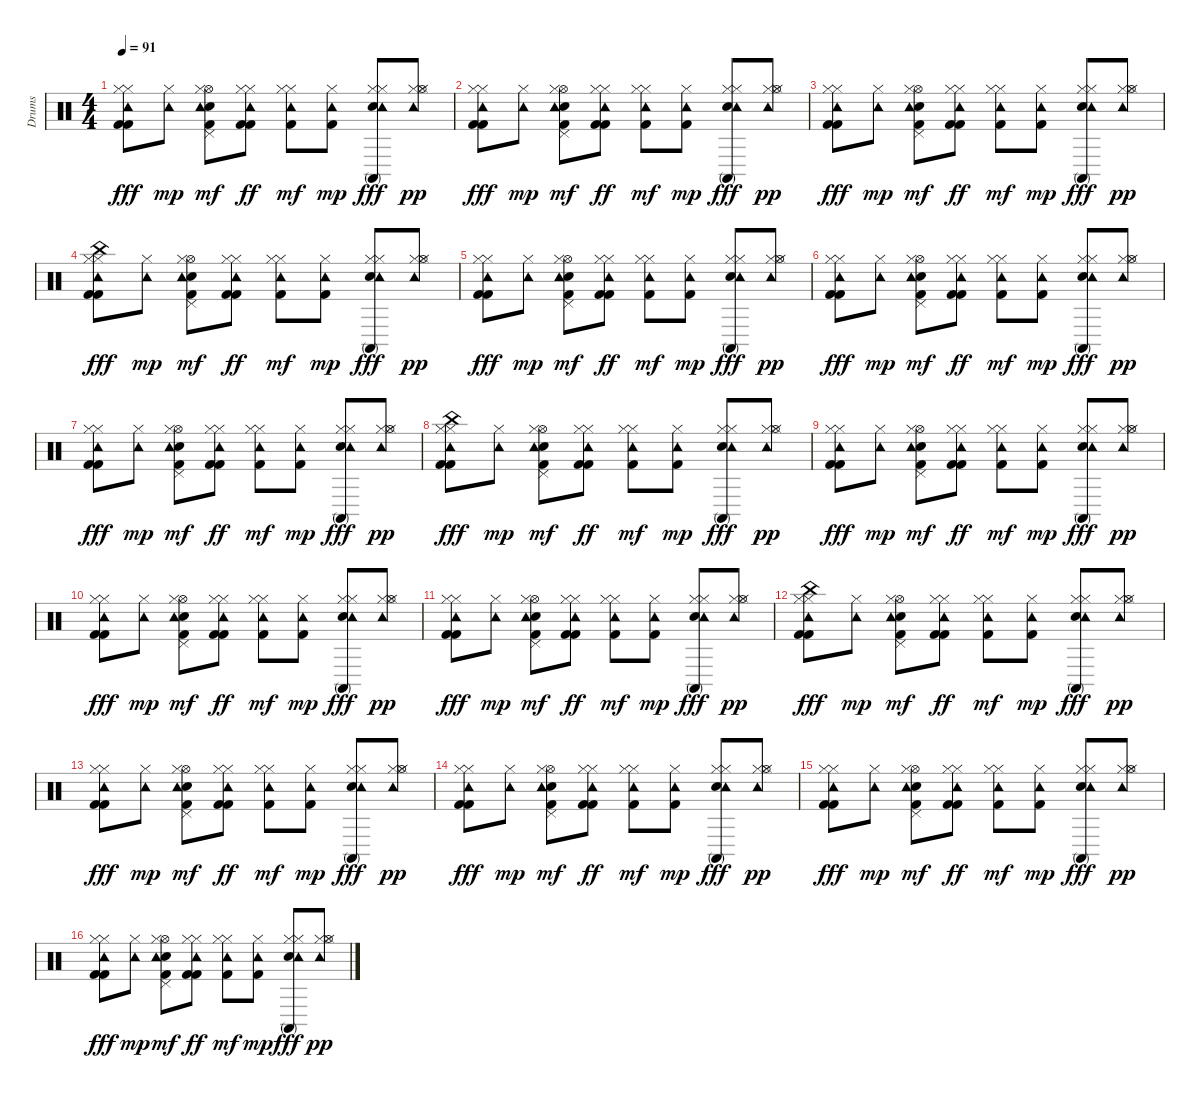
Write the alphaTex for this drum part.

\track ("Drums" "Drums") {instrument percussion}
\staff {score}
\articulation defaults
\ts (4 4)
\tempo 91
\clef neutral
\ks c
("Hi-Hat (closed)" "Kick (hit) 2" "Hi-Hat (closed)" "Tambourine (hit)" "Kick (hit) 2").8{dy fff} ("Hi-Hat (closed)" "Tambourine (hit)").8{dy mp} ("Kick (hit) 2" "Pedal Hi-Hat (hit)" "Hi-Hat (open)" "Snare (hit) 2" "Hi-Hat (closed)" "Tambourine (hit)").8{dy mf} ("Hi-Hat (closed)" "Kick (hit) 2" "Hi-Hat (closed)" "Tambourine (hit)" "Kick (hit) 2").8{dy ff} ("Hi-Hat (closed)" "Kick (hit) 2" "Hi-Hat (closed)" "Tambourine (hit)").8{dy mf} ("Kick (hit) 2" "Hi-Hat (closed)" "Tambourine (hit)").8{dy mp} ("Hi-Hat (closed)" "Snare (hit) 2" "Hi-Hat (closed)" "Tambourine (hit)" "Conga high (mute)").8{dy fff} ("Hi-Hat (closed)" "Hi-Hat (closed)" "Hi-Hat (open)" "Tambourine (hit)").8{dy pp} |
("Hi-Hat (closed)" "Kick (hit) 2" "Hi-Hat (closed)" "Tambourine (hit)" "Kick (hit) 2").8{dy fff} ("Hi-Hat (closed)" "Tambourine (hit)").8{dy mp} ("Kick (hit) 2" "Pedal Hi-Hat (hit)" "Hi-Hat (open)" "Snare (hit) 2" "Hi-Hat (closed)" "Tambourine (hit)").8{dy mf} ("Hi-Hat (closed)" "Kick (hit) 2" "Hi-Hat (closed)" "Tambourine (hit)" "Kick (hit) 2").8{dy ff} ("Hi-Hat (closed)" "Kick (hit) 2" "Hi-Hat (closed)" "Tambourine (hit)").8{dy mf} ("Kick (hit) 2" "Hi-Hat (closed)" "Tambourine (hit)").8{dy mp} ("Hi-Hat (closed)" "Snare (hit) 2" "Hi-Hat (closed)" "Tambourine (hit)" "Conga high (mute)").8{dy fff} ("Hi-Hat (closed)" "Hi-Hat (closed)" "Hi-Hat (open)" "Tambourine (hit)").8{dy pp} |
("Hi-Hat (closed)" "Kick (hit) 2" "Hi-Hat (closed)" "Tambourine (hit)" "Kick (hit) 2").8{dy fff} ("Hi-Hat (closed)" "Tambourine (hit)").8{dy mp} ("Kick (hit) 2" "Pedal Hi-Hat (hit)" "Hi-Hat (open)" "Snare (hit) 2" "Hi-Hat (closed)" "Tambourine (hit)").8{dy mf} ("Hi-Hat (closed)" "Kick (hit) 2" "Hi-Hat (closed)" "Tambourine (hit)" "Kick (hit) 2").8{dy ff} ("Hi-Hat (closed)" "Kick (hit) 2" "Hi-Hat (closed)" "Tambourine (hit)").8{dy mf} ("Kick (hit) 2" "Hi-Hat (closed)" "Tambourine (hit)").8{dy mp} ("Hi-Hat (closed)" "Snare (hit) 2" "Hi-Hat (closed)" "Tambourine (hit)" "Conga high (mute)").8{dy fff} ("Hi-Hat (closed)" "Hi-Hat (closed)" "Hi-Hat (open)" "Tambourine (hit)").8{dy pp} |
("Hi-Hat (closed)" "Kick (hit) 2" "Hi-Hat (closed)" "China (hit)" "Tambourine (hit)" "Kick (hit) 2").8{dy fff} ("Hi-Hat (closed)" "Tambourine (hit)").8{dy mp} ("Kick (hit) 2" "Pedal Hi-Hat (hit)" "Hi-Hat (open)" "Snare (hit) 2" "Hi-Hat (closed)" "Tambourine (hit)").8{dy mf} ("Hi-Hat (closed)" "Kick (hit) 2" "Hi-Hat (closed)" "Tambourine (hit)" "Kick (hit) 2").8{dy ff} ("Hi-Hat (closed)" "Kick (hit) 2" "Hi-Hat (closed)" "Tambourine (hit)").8{dy mf} ("Kick (hit) 2" "Hi-Hat (closed)" "Tambourine (hit)").8{dy mp} ("Hi-Hat (closed)" "Snare (hit) 2" "Hi-Hat (closed)" "Tambourine (hit)" "Conga high (mute)").8{dy fff} ("Hi-Hat (closed)" "Hi-Hat (closed)" "Hi-Hat (open)" "Tambourine (hit)").8{dy pp} |
("Hi-Hat (closed)" "Kick (hit) 2" "Hi-Hat (closed)" "Tambourine (hit)" "Kick (hit) 2").8{dy fff} ("Hi-Hat (closed)" "Tambourine (hit)").8{dy mp} ("Kick (hit) 2" "Pedal Hi-Hat (hit)" "Hi-Hat (open)" "Snare (hit) 2" "Hi-Hat (closed)" "Tambourine (hit)").8{dy mf} ("Hi-Hat (closed)" "Kick (hit) 2" "Hi-Hat (closed)" "Tambourine (hit)" "Kick (hit) 2").8{dy ff} ("Hi-Hat (closed)" "Kick (hit) 2" "Hi-Hat (closed)" "Tambourine (hit)").8{dy mf} ("Kick (hit) 2" "Hi-Hat (closed)" "Tambourine (hit)").8{dy mp} ("Hi-Hat (closed)" "Snare (hit) 2" "Hi-Hat (closed)" "Tambourine (hit)" "Conga high (mute)").8{dy fff} ("Hi-Hat (closed)" "Hi-Hat (closed)" "Hi-Hat (open)" "Tambourine (hit)").8{dy pp} |
("Hi-Hat (closed)" "Kick (hit) 2" "Hi-Hat (closed)" "Tambourine (hit)" "Kick (hit) 2").8{dy fff} ("Hi-Hat (closed)" "Tambourine (hit)").8{dy mp} ("Kick (hit) 2" "Pedal Hi-Hat (hit)" "Hi-Hat (open)" "Snare (hit) 2" "Hi-Hat (closed)" "Tambourine (hit)").8{dy mf} ("Hi-Hat (closed)" "Kick (hit) 2" "Hi-Hat (closed)" "Tambourine (hit)" "Kick (hit) 2").8{dy ff} ("Hi-Hat (closed)" "Kick (hit) 2" "Hi-Hat (closed)" "Tambourine (hit)").8{dy mf} ("Kick (hit) 2" "Hi-Hat (closed)" "Tambourine (hit)").8{dy mp} ("Hi-Hat (closed)" "Snare (hit) 2" "Hi-Hat (closed)" "Tambourine (hit)" "Conga high (mute)").8{dy fff} ("Hi-Hat (closed)" "Hi-Hat (closed)" "Hi-Hat (open)" "Tambourine (hit)").8{dy pp} |
("Hi-Hat (closed)" "Kick (hit) 2" "Hi-Hat (closed)" "Tambourine (hit)" "Kick (hit) 2").8{dy fff} ("Hi-Hat (closed)" "Tambourine (hit)").8{dy mp} ("Kick (hit) 2" "Pedal Hi-Hat (hit)" "Hi-Hat (open)" "Snare (hit) 2" "Hi-Hat (closed)" "Tambourine (hit)").8{dy mf} ("Hi-Hat (closed)" "Kick (hit) 2" "Hi-Hat (closed)" "Tambourine (hit)" "Kick (hit) 2").8{dy ff} ("Hi-Hat (closed)" "Kick (hit) 2" "Hi-Hat (closed)" "Tambourine (hit)").8{dy mf} ("Kick (hit) 2" "Hi-Hat (closed)" "Tambourine (hit)").8{dy mp} ("Hi-Hat (closed)" "Snare (hit) 2" "Hi-Hat (closed)" "Tambourine (hit)" "Conga high (mute)").8{dy fff} ("Hi-Hat (closed)" "Hi-Hat (closed)" "Hi-Hat (open)" "Tambourine (hit)").8{dy pp} |
("Hi-Hat (closed)" "Kick (hit) 2" "Hi-Hat (closed)" "China (hit)" "Tambourine (hit)" "Kick (hit) 2").8{dy fff} ("Hi-Hat (closed)" "Tambourine (hit)").8{dy mp} ("Kick (hit) 2" "Pedal Hi-Hat (hit)" "Hi-Hat (open)" "Snare (hit) 2" "Hi-Hat (closed)" "Tambourine (hit)").8{dy mf} ("Hi-Hat (closed)" "Kick (hit) 2" "Hi-Hat (closed)" "Tambourine (hit)" "Kick (hit) 2").8{dy ff} ("Hi-Hat (closed)" "Kick (hit) 2" "Hi-Hat (closed)" "Tambourine (hit)").8{dy mf} ("Kick (hit) 2" "Hi-Hat (closed)" "Tambourine (hit)").8{dy mp} ("Hi-Hat (closed)" "Snare (hit) 2" "Hi-Hat (closed)" "Tambourine (hit)" "Conga high (mute)").8{dy fff} ("Hi-Hat (closed)" "Hi-Hat (closed)" "Hi-Hat (open)" "Tambourine (hit)").8{dy pp} |
("Hi-Hat (closed)" "Kick (hit) 2" "Hi-Hat (closed)" "Tambourine (hit)" "Kick (hit) 2").8{dy fff} ("Hi-Hat (closed)" "Tambourine (hit)").8{dy mp} ("Kick (hit) 2" "Pedal Hi-Hat (hit)" "Hi-Hat (open)" "Snare (hit) 2" "Hi-Hat (closed)" "Tambourine (hit)").8{dy mf} ("Hi-Hat (closed)" "Kick (hit) 2" "Hi-Hat (closed)" "Tambourine (hit)" "Kick (hit) 2").8{dy ff} ("Hi-Hat (closed)" "Kick (hit) 2" "Hi-Hat (closed)" "Tambourine (hit)").8{dy mf} ("Kick (hit) 2" "Hi-Hat (closed)" "Tambourine (hit)").8{dy mp} ("Hi-Hat (closed)" "Snare (hit) 2" "Hi-Hat (closed)" "Tambourine (hit)" "Conga high (mute)").8{dy fff} ("Hi-Hat (closed)" "Hi-Hat (closed)" "Hi-Hat (open)" "Tambourine (hit)").8{dy pp} |
("Hi-Hat (closed)" "Kick (hit) 2" "Hi-Hat (closed)" "Tambourine (hit)" "Kick (hit) 2").8{dy fff} ("Hi-Hat (closed)" "Tambourine (hit)").8{dy mp} ("Kick (hit) 2" "Pedal Hi-Hat (hit)" "Hi-Hat (open)" "Snare (hit) 2" "Hi-Hat (closed)" "Tambourine (hit)").8{dy mf} ("Hi-Hat (closed)" "Kick (hit) 2" "Hi-Hat (closed)" "Tambourine (hit)" "Kick (hit) 2").8{dy ff} ("Hi-Hat (closed)" "Kick (hit) 2" "Hi-Hat (closed)" "Tambourine (hit)").8{dy mf} ("Kick (hit) 2" "Hi-Hat (closed)" "Tambourine (hit)").8{dy mp} ("Hi-Hat (closed)" "Snare (hit) 2" "Hi-Hat (closed)" "Tambourine (hit)" "Conga high (mute)").8{dy fff} ("Hi-Hat (closed)" "Hi-Hat (closed)" "Hi-Hat (open)" "Tambourine (hit)").8{dy pp} |
("Hi-Hat (closed)" "Kick (hit) 2" "Hi-Hat (closed)" "Tambourine (hit)" "Kick (hit) 2").8{dy fff} ("Hi-Hat (closed)" "Tambourine (hit)").8{dy mp} ("Kick (hit) 2" "Pedal Hi-Hat (hit)" "Hi-Hat (open)" "Snare (hit) 2" "Hi-Hat (closed)" "Tambourine (hit)").8{dy mf} ("Hi-Hat (closed)" "Kick (hit) 2" "Hi-Hat (closed)" "Tambourine (hit)" "Kick (hit) 2").8{dy ff} ("Hi-Hat (closed)" "Kick (hit) 2" "Hi-Hat (closed)" "Tambourine (hit)").8{dy mf} ("Kick (hit) 2" "Hi-Hat (closed)" "Tambourine (hit)").8{dy mp} ("Hi-Hat (closed)" "Snare (hit) 2" "Hi-Hat (closed)" "Tambourine (hit)" "Conga high (mute)").8{dy fff} ("Hi-Hat (closed)" "Hi-Hat (closed)" "Hi-Hat (open)" "Tambourine (hit)").8{dy pp} |
("Hi-Hat (closed)" "Kick (hit) 2" "Hi-Hat (closed)" "China (hit)" "Tambourine (hit)" "Kick (hit) 2").8{dy fff} ("Hi-Hat (closed)" "Tambourine (hit)").8{dy mp} ("Kick (hit) 2" "Pedal Hi-Hat (hit)" "Hi-Hat (open)" "Snare (hit) 2" "Hi-Hat (closed)" "Tambourine (hit)").8{dy mf} ("Hi-Hat (closed)" "Kick (hit) 2" "Hi-Hat (closed)" "Tambourine (hit)" "Kick (hit) 2").8{dy ff} ("Hi-Hat (closed)" "Kick (hit) 2" "Hi-Hat (closed)" "Tambourine (hit)").8{dy mf} ("Kick (hit) 2" "Hi-Hat (closed)" "Tambourine (hit)").8{dy mp} ("Hi-Hat (closed)" "Snare (hit) 2" "Hi-Hat (closed)" "Tambourine (hit)" "Conga high (mute)").8{dy fff} ("Hi-Hat (closed)" "Hi-Hat (closed)" "Hi-Hat (open)" "Tambourine (hit)").8{dy pp} |
("Hi-Hat (closed)" "Kick (hit) 2" "Hi-Hat (closed)" "Tambourine (hit)" "Kick (hit) 2").8{dy fff} ("Hi-Hat (closed)" "Tambourine (hit)").8{dy mp} ("Kick (hit) 2" "Pedal Hi-Hat (hit)" "Hi-Hat (open)" "Snare (hit) 2" "Hi-Hat (closed)" "Tambourine (hit)").8{dy mf} ("Hi-Hat (closed)" "Kick (hit) 2" "Hi-Hat (closed)" "Tambourine (hit)" "Kick (hit) 2").8{dy ff} ("Hi-Hat (closed)" "Kick (hit) 2" "Hi-Hat (closed)" "Tambourine (hit)").8{dy mf} ("Kick (hit) 2" "Hi-Hat (closed)" "Tambourine (hit)").8{dy mp} ("Hi-Hat (closed)" "Snare (hit) 2" "Hi-Hat (closed)" "Tambourine (hit)" "Conga high (mute)").8{dy fff} ("Hi-Hat (closed)" "Hi-Hat (closed)" "Hi-Hat (open)" "Tambourine (hit)").8{dy pp} |
("Hi-Hat (closed)" "Kick (hit) 2" "Hi-Hat (closed)" "Tambourine (hit)" "Kick (hit) 2").8{dy fff} ("Hi-Hat (closed)" "Tambourine (hit)").8{dy mp} ("Kick (hit) 2" "Pedal Hi-Hat (hit)" "Hi-Hat (open)" "Snare (hit) 2" "Hi-Hat (closed)" "Tambourine (hit)").8{dy mf} ("Hi-Hat (closed)" "Kick (hit) 2" "Hi-Hat (closed)" "Tambourine (hit)" "Kick (hit) 2").8{dy ff} ("Hi-Hat (closed)" "Kick (hit) 2" "Hi-Hat (closed)" "Tambourine (hit)").8{dy mf} ("Kick (hit) 2" "Hi-Hat (closed)" "Tambourine (hit)").8{dy mp} ("Hi-Hat (closed)" "Snare (hit) 2" "Hi-Hat (closed)" "Tambourine (hit)" "Conga high (mute)").8{dy fff} ("Hi-Hat (closed)" "Hi-Hat (closed)" "Hi-Hat (open)" "Tambourine (hit)").8{dy pp} |
("Hi-Hat (closed)" "Kick (hit) 2" "Hi-Hat (closed)" "Tambourine (hit)" "Kick (hit) 2").8{dy fff} ("Hi-Hat (closed)" "Tambourine (hit)").8{dy mp} ("Kick (hit) 2" "Pedal Hi-Hat (hit)" "Hi-Hat (open)" "Snare (hit) 2" "Hi-Hat (closed)" "Tambourine (hit)").8{dy mf} ("Hi-Hat (closed)" "Kick (hit) 2" "Hi-Hat (closed)" "Tambourine (hit)" "Kick (hit) 2").8{dy ff} ("Hi-Hat (closed)" "Kick (hit) 2" "Hi-Hat (closed)" "Tambourine (hit)").8{dy mf} ("Kick (hit) 2" "Hi-Hat (closed)" "Tambourine (hit)").8{dy mp} ("Hi-Hat (closed)" "Snare (hit) 2" "Hi-Hat (closed)" "Tambourine (hit)" "Conga high (mute)").8{dy fff} ("Hi-Hat (closed)" "Hi-Hat (closed)" "Hi-Hat (open)" "Tambourine (hit)").8{dy pp} |
("Hi-Hat (closed)" "Kick (hit) 2" "Hi-Hat (closed)" "Tambourine (hit)" "Kick (hit) 2").8{dy fff} ("Hi-Hat (closed)" "Tambourine (hit)").8{dy mp} ("Kick (hit) 2" "Pedal Hi-Hat (hit)" "Hi-Hat (open)" "Snare (hit) 2" "Hi-Hat (closed)" "Tambourine (hit)").8{dy mf} ("Hi-Hat (closed)" "Kick (hit) 2" "Hi-Hat (closed)" "Tambourine (hit)" "Kick (hit) 2").8{dy ff} ("Hi-Hat (closed)" "Kick (hit) 2" "Hi-Hat (closed)" "Tambourine (hit)").8{dy mf} ("Kick (hit) 2" "Hi-Hat (closed)" "Tambourine (hit)").8{dy mp} ("Hi-Hat (closed)" "Snare (hit) 2" "Hi-Hat (closed)" "Tambourine (hit)" "Conga high (mute)").8{dy fff} ("Hi-Hat (closed)" "Hi-Hat (closed)" "Hi-Hat (open)" "Tambourine (hit)").8{dy pp}
